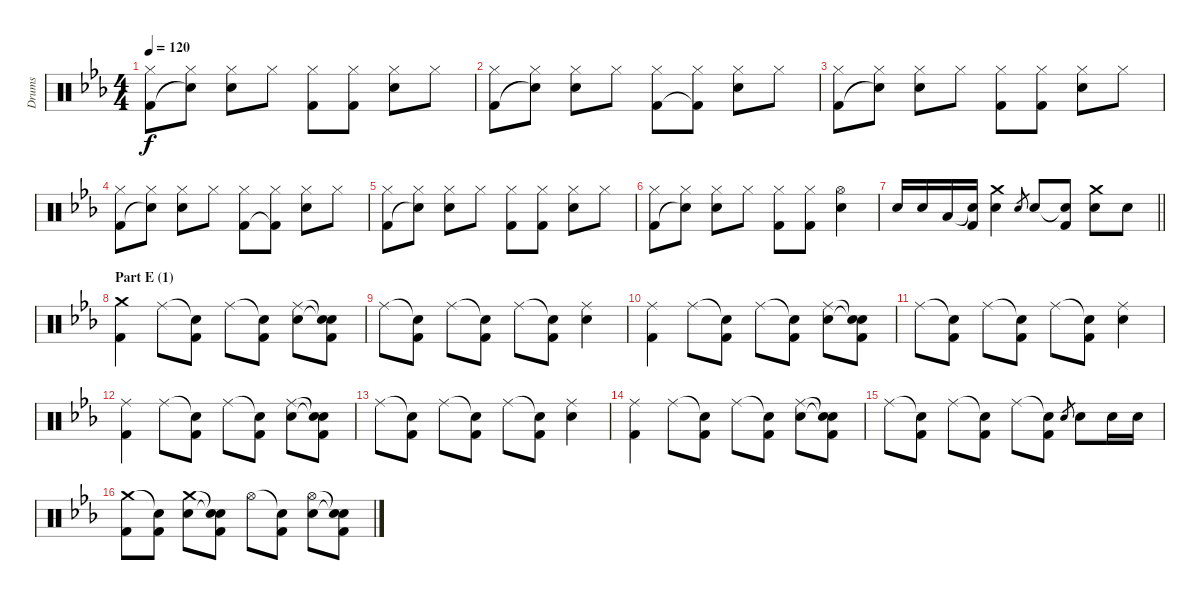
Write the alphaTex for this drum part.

\track ("Drums" "Drums") {instrument percussion}
\staff {score}
\articulation defaults
\ts (4 4)
\tempo 120
\clef neutral
\ks eb
("Hi-Hat (closed)" "Kick (hit) 2").8{dy f} ("Hi-Hat (closed)" "Snare (hit)"{t}).8 ("Hi-Hat (closed)" "Electric Snare (hit)").8 "Hi-Hat (closed)".8 ("Hi-Hat (closed)" "Kick (hit) 2").8 ("Hi-Hat (closed)" "Kick (hit) 2").8 ("Hi-Hat (closed)" "Electric Snare (hit)").8 "Hi-Hat (closed)".8 |
("Hi-Hat (closed)" "Kick (hit) 2").8 ("Hi-Hat (closed)" "Snare (hit)"{t}).8 ("Hi-Hat (closed)" "Electric Snare (hit)").8 "Hi-Hat (closed)".8 ("Hi-Hat (closed)" "Kick (hit) 2").8 ("Hi-Hat (closed)" "Kick (hit) 2"{t}).8 ("Hi-Hat (closed)" "Electric Snare (hit)").8 "Hi-Hat (closed)".8 |
("Hi-Hat (closed)" "Kick (hit) 2").8 ("Hi-Hat (closed)" "Snare (hit)"{t}).8 ("Hi-Hat (closed)" "Electric Snare (hit)").8 "Hi-Hat (closed)".8 ("Hi-Hat (closed)" "Kick (hit) 2").8 ("Hi-Hat (closed)" "Kick (hit) 2").8 ("Hi-Hat (closed)" "Electric Snare (hit)").8 "Hi-Hat (closed)".8 |
("Hi-Hat (closed)" "Kick (hit) 2").8 ("Hi-Hat (closed)" "Snare (hit)"{t}).8 ("Hi-Hat (closed)" "Electric Snare (hit)").8 "Hi-Hat (closed)".8 ("Hi-Hat (closed)" "Kick (hit) 2").8 ("Hi-Hat (closed)" "Kick (hit) 2"{t}).8 ("Hi-Hat (closed)" "Electric Snare (hit)").8 "Hi-Hat (closed)".8 |
("Hi-Hat (closed)" "Kick (hit) 2").8 ("Hi-Hat (closed)" "Snare (hit)"{t}).8 ("Hi-Hat (closed)" "Electric Snare (hit)").8 "Hi-Hat (closed)".8 ("Hi-Hat (closed)" "Kick (hit) 2").8 ("Hi-Hat (closed)" "Kick (hit) 2").8 ("Hi-Hat (closed)" "Electric Snare (hit)").8 "Hi-Hat (closed)".8 |
("Hi-Hat (closed)" "Kick (hit) 2").8 ("Hi-Hat (closed)" "Snare (hit)"{t}).8 ("Hi-Hat (closed)" "Electric Snare (hit)").8 "Hi-Hat (closed)".8 ("Hi-Hat (closed)" "Kick (hit) 2").8 ("Hi-Hat (closed)" "Kick (hit) 2").8 ("Hi-Hat (open)" "Electric Snare (hit)").4 |
\barLineRight lightlight "Electric Snare (hit)".16 "Electric Snare (hit)".16 "Low Tom (hit)".16
("Snare (hit)"{t} "Kick (hit) 2").16 ("Crash medium (hit)" "Electric Snare (hit)").4 "Electric Snare (hit)".8{gr} "Electric Snare (hit)".8 ("Snare (hit)"{t} "Kick (hit) 2").8 ("Crash medium (hit)" "Electric Snare (hit)").8 "Electric Snare (hit)".8 |
\section ("" "Part E (1)")
("Crash medium (hit)" "Kick (hit) 2").4 "Ride (middle)".8 ("Snare (hit)"{t} "Kick (hit) 2").8 "Ride (middle)".8 ("Snare (hit)"{t} "Kick (hit) 2").8 ("Ride (middle)" "Electric Snare (hit)").8 ("Snare (hit)"{t} "Snare (hit)"{t} "Kick (hit) 2").8 |
"Ride (middle)".8 ("Snare (hit)"{t} "Kick (hit) 2").8 "Ride (middle)".8 ("Snare (hit)"{t} "Kick (hit) 2").8 "Ride (middle)".8 ("Snare (hit)"{t} "Kick (hit) 2").8 ("Ride (middle)" "Electric Snare (hit)").4 |
("Ride (middle)" "Kick (hit) 2").4 "Ride (middle)".8 ("Snare (hit)"{t} "Kick (hit) 2").8 "Ride (middle)".8 ("Snare (hit)"{t} "Kick (hit) 2").8 ("Ride (middle)" "Electric Snare (hit)").8 ("Snare (hit)"{t} "Snare (hit)"{t} "Kick (hit) 2").8 |
"Ride (middle)".8 ("Snare (hit)"{t} "Kick (hit) 2").8 "Ride (middle)".8 ("Snare (hit)"{t} "Kick (hit) 2").8 "Ride (middle)".8 ("Snare (hit)"{t} "Kick (hit) 2").8 ("Ride (middle)" "Electric Snare (hit)").4 |
("Ride (middle)" "Kick (hit) 2").4 "Ride (middle)".8 ("Snare (hit)"{t} "Kick (hit) 2").8 "Ride (middle)".8 ("Snare (hit)"{t} "Kick (hit) 2").8 ("Ride (middle)" "Electric Snare (hit)").8 ("Snare (hit)"{t} "Snare (hit)"{t} "Kick (hit) 2").8 |
"Ride (middle)".8 ("Snare (hit)"{t} "Kick (hit) 2").8 "Ride (middle)".8 ("Snare (hit)"{t} "Kick (hit) 2").8 "Ride (middle)".8 ("Snare (hit)"{t} "Kick (hit) 2").8 ("Ride (middle)" "Electric Snare (hit)").4 |
("Ride (middle)" "Kick (hit) 2").4 "Ride (middle)".8 ("Snare (hit)"{t} "Kick (hit) 2").8 "Ride (middle)".8 ("Snare (hit)"{t} "Kick (hit) 2").8 ("Ride (middle)" "Electric Snare (hit)").8 ("Snare (hit)"{t} "Snare (hit)"{t} "Kick (hit) 2").8 |
"Ride (middle)".8 ("Snare (hit)"{t} "Kick (hit) 2").8 "Ride (middle)".8 ("Snare (hit)"{t} "Kick (hit) 2").8 "Ride (middle)".8 ("Snare (hit)"{t} "Kick (hit) 2").8 "Electric Snare (hit)".8{gr} "Electric Snare (hit)".8 "Electric Snare (hit)".16 "Electric Snare (hit)".16 |
("Crash medium (hit)" "Kick (hit) 2").8 ("Snare (hit)"{t} "Kick (hit) 2").8 ("Crash medium (hit)" "Electric Snare (hit)").8 ("Snare (hit)"{t} "Snare (hit)"{t} "Kick (hit) 2").8 "Hi-Hat (open)".8 ("Snare (hit)"{t} "Kick (hit) 2").8 ("Hi-Hat (open)" "Electric Snare (hit)").8 ("Snare (hit)"{t} "Snare (hit)"{t} "Kick (hit) 2").8
